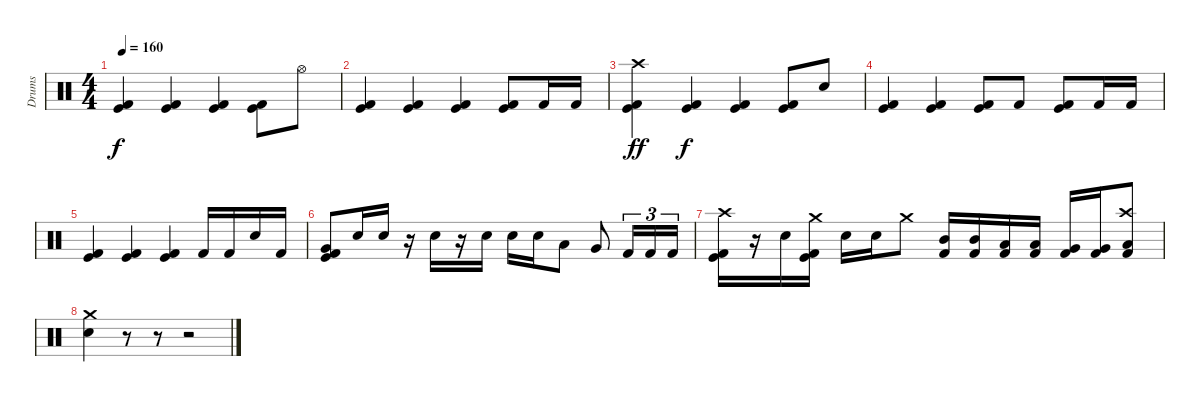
\track ("Drums" "Drums") {instrument percussion}
\staff {score}
\articulation defaults
\ts (4 4)
\tempo 160
\clef neutral
\ks c
("Kick (hit)" "Kick (hit) 2").4{dy f} ("Kick (hit)" "Kick (hit) 2").4 ("Kick (hit)" "Kick (hit) 2").4 ("Kick (hit)" "Kick (hit) 2").8 "Hi-Hat (open)".8 |
("Kick (hit)" "Kick (hit) 2").4 ("Kick (hit)" "Kick (hit) 2").4 ("Kick (hit)" "Kick (hit) 2").4 ("Kick (hit)" "Kick (hit) 2").8 "Kick (hit) 2".16 "Kick (hit) 2".16 |
("Crash high (hit)" "Kick (hit)" "Kick (hit) 2").4{dy ff} ("Kick (hit)" "Kick (hit) 2").4{dy f} ("Kick (hit)" "Kick (hit) 2").4 ("Kick (hit)" "Kick (hit) 2").8 "Snare (hit) 2".8 |
("Kick (hit)" "Kick (hit) 2").4 ("Kick (hit)" "Kick (hit) 2").4 ("Kick (hit)" "Kick (hit) 2").8 "Kick (hit) 2".8 ("Kick (hit)" "Kick (hit) 2").8 "Kick (hit) 2".16 "Kick (hit) 2".16 |
("Kick (hit)" "Kick (hit) 2").4 ("Kick (hit)" "Kick (hit) 2").4 ("Kick (hit)" "Kick (hit) 2").4 "Kick (hit) 2".16 "Kick (hit) 2".16 "Snare (hit) 2".16 "Kick (hit) 2".16 |
("Very Low Tom (hit)" "Kick (hit)" "Kick (hit) 2").8 "Electric Snare (hit)".16 "Electric Snare (hit)".16 r.16 "Snare (hit) 2".16 r.16 "Snare (hit) 2".16 "Snare (hit) 2".16 "Snare (hit) 2".16 "Low Tom (hit)".8 "Very Low Tom (hit)".8 "Kick (hit) 2".16{tu (3 2)} "Kick (hit) 2".16{tu (3 2)} "Kick (hit) 2".16{tu (3 2)} |
("Crash high (hit)" "Kick (hit)" "Kick (hit) 2").16 r.16 "Snare (hit) 2".16 ("Crash medium (hit)" "Kick (hit)" "Kick (hit) 2").16 "Snare (hit) 2".16 "Snare (hit) 2".16 "Crash medium (hit)".8 ("Mid Tom (hit)" "Kick (hit) 2").16 ("Mid Tom (hit)" "Kick (hit) 2").16 ("Low Tom (hit)" "Kick (hit) 2").16 ("Low Tom (hit)" "Kick (hit) 2").16 ("Very Low Tom (hit)" "Kick (hit) 2").16 ("Very Low Tom (hit)" "Kick (hit) 2").16 ("Crash high (hit)" "Low Floor Tom (hit)" "Kick (hit) 2").8 |
("Crash medium (hit)" "Snare (hit) 2").4 r.8 r.8 r.2
